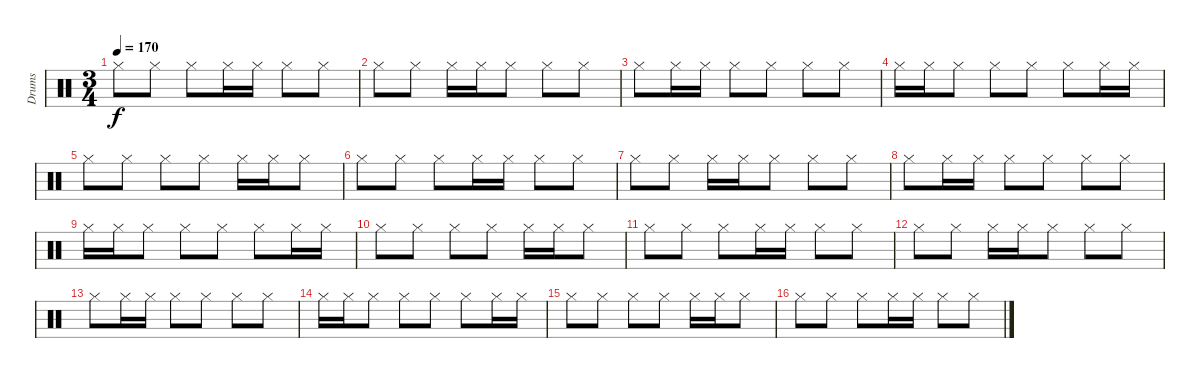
\track ("Drums" "Drums") {instrument percussion}
\staff {score}
\articulation defaults
\ts (3 4)
\tempo 170
\clef neutral
\ks c "Hi-Hat (closed)".8{dy f} "Hi-Hat (closed)".8 "Hi-Hat (closed)".8 "Hi-Hat (closed)".16 "Hi-Hat (closed)".16 "Hi-Hat (closed)".8 "Hi-Hat (closed)".8
|
"Hi-Hat (closed)".8 "Hi-Hat (closed)".8 "Hi-Hat (closed)".16 "Hi-Hat (closed)".16 "Hi-Hat (closed)".8 "Hi-Hat (closed)".8 "Hi-Hat (closed)".8 |
"Hi-Hat (closed)".8 "Hi-Hat (closed)".16 "Hi-Hat (closed)".16 "Hi-Hat (closed)".8 "Hi-Hat (closed)".8 "Hi-Hat (closed)".8 "Hi-Hat (closed)".8 |
"Hi-Hat (closed)".16 "Hi-Hat (closed)".16 "Hi-Hat (closed)".8 "Hi-Hat (closed)".8 "Hi-Hat (closed)".8 "Hi-Hat (closed)".8 "Hi-Hat (closed)".16 "Hi-Hat (closed)".16 |
"Hi-Hat (closed)".8 "Hi-Hat (closed)".8 "Hi-Hat (closed)".8 "Hi-Hat (closed)".8 "Hi-Hat (closed)".16 "Hi-Hat (closed)".16 "Hi-Hat (closed)".8 |
"Hi-Hat (closed)".8 "Hi-Hat (closed)".8 "Hi-Hat (closed)".8 "Hi-Hat (closed)".16 "Hi-Hat (closed)".16 "Hi-Hat (closed)".8 "Hi-Hat (closed)".8 |
"Hi-Hat (closed)".8 "Hi-Hat (closed)".8 "Hi-Hat (closed)".16 "Hi-Hat (closed)".16 "Hi-Hat (closed)".8 "Hi-Hat (closed)".8 "Hi-Hat (closed)".8 |
"Hi-Hat (closed)".8 "Hi-Hat (closed)".16 "Hi-Hat (closed)".16 "Hi-Hat (closed)".8 "Hi-Hat (closed)".8 "Hi-Hat (closed)".8 "Hi-Hat (closed)".8 |
"Hi-Hat (closed)".16 "Hi-Hat (closed)".16 "Hi-Hat (closed)".8 "Hi-Hat (closed)".8 "Hi-Hat (closed)".8 "Hi-Hat (closed)".8 "Hi-Hat (closed)".16 "Hi-Hat (closed)".16 |
"Hi-Hat (closed)".8 "Hi-Hat (closed)".8 "Hi-Hat (closed)".8 "Hi-Hat (closed)".8 "Hi-Hat (closed)".16 "Hi-Hat (closed)".16 "Hi-Hat (closed)".8 |
"Hi-Hat (closed)".8 "Hi-Hat (closed)".8 "Hi-Hat (closed)".8 "Hi-Hat (closed)".16 "Hi-Hat (closed)".16 "Hi-Hat (closed)".8 "Hi-Hat (closed)".8 |
"Hi-Hat (closed)".8 "Hi-Hat (closed)".8 "Hi-Hat (closed)".16 "Hi-Hat (closed)".16 "Hi-Hat (closed)".8 "Hi-Hat (closed)".8 "Hi-Hat (closed)".8 |
"Hi-Hat (closed)".8 "Hi-Hat (closed)".16 "Hi-Hat (closed)".16 "Hi-Hat (closed)".8 "Hi-Hat (closed)".8 "Hi-Hat (closed)".8 "Hi-Hat (closed)".8 |
"Hi-Hat (closed)".16 "Hi-Hat (closed)".16 "Hi-Hat (closed)".8 "Hi-Hat (closed)".8 "Hi-Hat (closed)".8 "Hi-Hat (closed)".8 "Hi-Hat (closed)".16 "Hi-Hat (closed)".16 |
"Hi-Hat (closed)".8 "Hi-Hat (closed)".8 "Hi-Hat (closed)".8 "Hi-Hat (closed)".8 "Hi-Hat (closed)".16 "Hi-Hat (closed)".16 "Hi-Hat (closed)".8 |
"Hi-Hat (closed)".8 "Hi-Hat (closed)".8 "Hi-Hat (closed)".8 "Hi-Hat (closed)".16 "Hi-Hat (closed)".16 "Hi-Hat (closed)".8 "Hi-Hat (closed)".8
